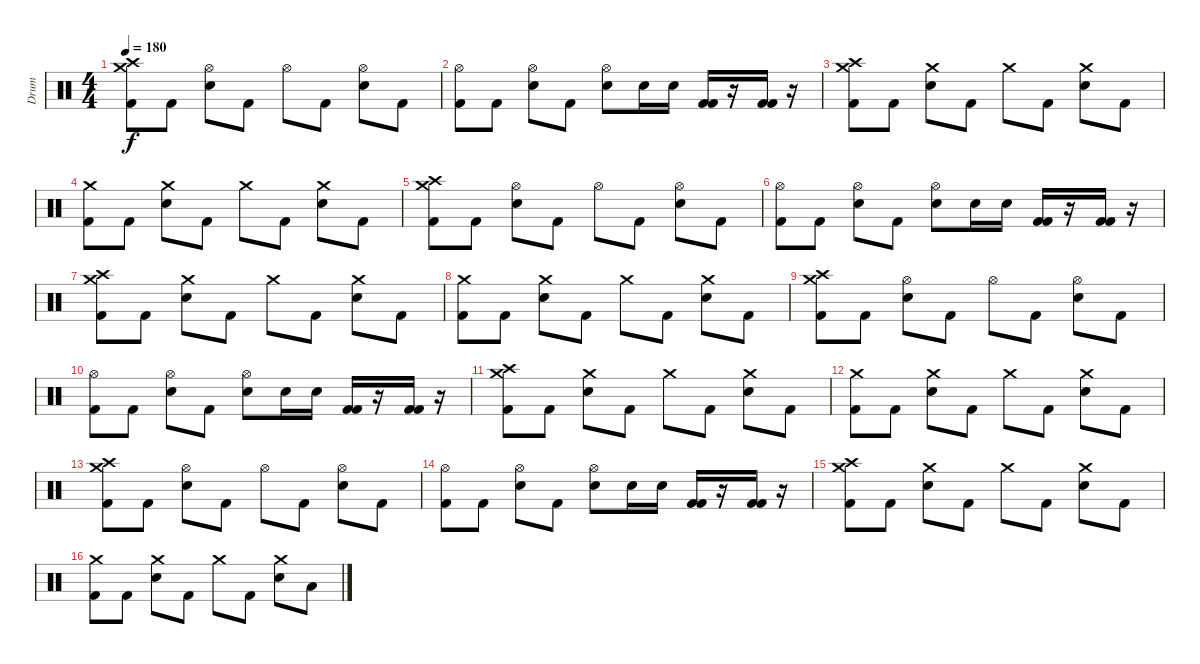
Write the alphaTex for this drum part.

\track ("Drum" "Drum") {instrument percussion}
\staff {score}
\articulation defaults
\ts (4 4)
\tempo 180
\clef neutral
\ks c
("Crash high (hit)" "Crash medium (hit)" "Kick (hit) 2").8{dy f} "Kick (hit) 2".8 ("Hi-Hat (open)" "Electric Snare (hit)").8 "Kick (hit) 2".8 "Hi-Hat (open)".8 "Kick (hit) 2".8 ("Hi-Hat (open)" "Electric Snare (hit)").8 "Kick (hit) 2".8 |
("Hi-Hat (open)" "Kick (hit) 2").8 "Kick (hit) 2".8 ("Hi-Hat (open)" "Electric Snare (hit)").8 "Kick (hit) 2".8 ("Hi-Hat (open)" "Electric Snare (hit)").8 "Electric Snare (hit)".16 "Electric Snare (hit)".16 ("Kick (hit) 2" "Kick (hit) 2").16 r.16 ("Kick (hit) 2" "Kick (hit) 2").16 r.16 |
("Crash high (hit)" "Crash medium (hit)" "Kick (hit) 2").8 "Kick (hit) 2".8 ("Crash medium (hit)" "Electric Snare (hit)").8 "Kick (hit) 2".8 "Crash medium (hit)".8 "Kick (hit) 2".8 ("Crash medium (hit)" "Electric Snare (hit)").8 "Kick (hit) 2".8 |
("Crash medium (hit)" "Kick (hit) 2").8 "Kick (hit) 2".8 ("Crash medium (hit)" "Electric Snare (hit)").8 "Kick (hit) 2".8 "Crash medium (hit)".8 "Kick (hit) 2".8 ("Crash medium (hit)" "Electric Snare (hit)").8 "Kick (hit) 2".8 |
("Crash high (hit)" "Crash medium (hit)" "Kick (hit) 2").8 "Kick (hit) 2".8 ("Hi-Hat (open)" "Electric Snare (hit)").8 "Kick (hit) 2".8 "Hi-Hat (open)".8 "Kick (hit) 2".8 ("Hi-Hat (open)" "Electric Snare (hit)").8 "Kick (hit) 2".8 |
("Hi-Hat (open)" "Kick (hit) 2").8 "Kick (hit) 2".8 ("Hi-Hat (open)" "Electric Snare (hit)").8 "Kick (hit) 2".8 ("Hi-Hat (open)" "Electric Snare (hit)").8 "Electric Snare (hit)".16 "Electric Snare (hit)".16 ("Kick (hit) 2" "Kick (hit) 2").16 r.16 ("Kick (hit) 2" "Kick (hit) 2").16 r.16 |
("Crash high (hit)" "Crash medium (hit)" "Kick (hit) 2").8 "Kick (hit) 2".8 ("Crash medium (hit)" "Electric Snare (hit)").8 "Kick (hit) 2".8 "Crash medium (hit)".8 "Kick (hit) 2".8 ("Crash medium (hit)" "Electric Snare (hit)").8 "Kick (hit) 2".8 |
("Crash medium (hit)" "Kick (hit) 2").8 "Kick (hit) 2".8 ("Crash medium (hit)" "Electric Snare (hit)").8 "Kick (hit) 2".8 "Crash medium (hit)".8 "Kick (hit) 2".8 ("Crash medium (hit)" "Electric Snare (hit)").8 "Kick (hit) 2".8 |
("Crash high (hit)" "Crash medium (hit)" "Kick (hit) 2").8 "Kick (hit) 2".8 ("Hi-Hat (open)" "Electric Snare (hit)").8 "Kick (hit) 2".8 "Hi-Hat (open)".8 "Kick (hit) 2".8 ("Hi-Hat (open)" "Electric Snare (hit)").8 "Kick (hit) 2".8 |
("Hi-Hat (open)" "Kick (hit) 2").8 "Kick (hit) 2".8 ("Hi-Hat (open)" "Electric Snare (hit)").8 "Kick (hit) 2".8 ("Hi-Hat (open)" "Electric Snare (hit)").8 "Electric Snare (hit)".16 "Electric Snare (hit)".16 ("Kick (hit) 2" "Kick (hit) 2").16 r.16 ("Kick (hit) 2" "Kick (hit) 2").16 r.16 |
("Crash high (hit)" "Crash medium (hit)" "Kick (hit) 2").8 "Kick (hit) 2".8 ("Crash medium (hit)" "Electric Snare (hit)").8 "Kick (hit) 2".8 "Crash medium (hit)".8 "Kick (hit) 2".8 ("Crash medium (hit)" "Electric Snare (hit)").8 "Kick (hit) 2".8 |
("Crash medium (hit)" "Kick (hit) 2").8 "Kick (hit) 2".8 ("Crash medium (hit)" "Electric Snare (hit)").8 "Kick (hit) 2".8 "Crash medium (hit)".8 "Kick (hit) 2".8 ("Crash medium (hit)" "Electric Snare (hit)").8 "Kick (hit) 2".8 |
("Crash high (hit)" "Crash medium (hit)" "Kick (hit) 2").8 "Kick (hit) 2".8 ("Hi-Hat (open)" "Electric Snare (hit)").8 "Kick (hit) 2".8 "Hi-Hat (open)".8 "Kick (hit) 2".8 ("Hi-Hat (open)" "Electric Snare (hit)").8 "Kick (hit) 2".8 |
("Hi-Hat (open)" "Kick (hit) 2").8 "Kick (hit) 2".8 ("Hi-Hat (open)" "Electric Snare (hit)").8 "Kick (hit) 2".8 ("Hi-Hat (open)" "Electric Snare (hit)").8 "Electric Snare (hit)".16 "Electric Snare (hit)".16 ("Kick (hit) 2" "Kick (hit) 2").16 r.16 ("Kick (hit) 2" "Kick (hit) 2").16 r.16 |
("Crash high (hit)" "Crash medium (hit)" "Kick (hit) 2").8 "Kick (hit) 2".8 ("Crash medium (hit)" "Electric Snare (hit)").8 "Kick (hit) 2".8 "Crash medium (hit)".8 "Kick (hit) 2".8 ("Crash medium (hit)" "Electric Snare (hit)").8 "Kick (hit) 2".8 |
("Crash medium (hit)" "Kick (hit) 2").8 "Kick (hit) 2".8 ("Crash medium (hit)" "Electric Snare (hit)").8 "Kick (hit) 2".8 "Crash medium (hit)".8 "Kick (hit) 2".8 ("Crash medium (hit)" "Electric Snare (hit)").8 "Low Tom (hit)".8
